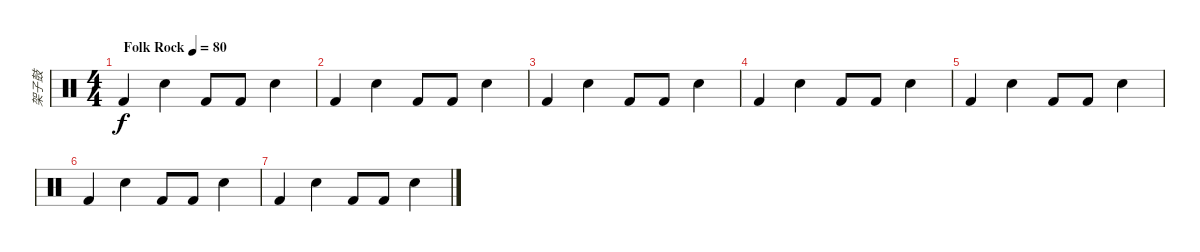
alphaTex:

\track ("架子鼓" "架子鼓") {instrument percussion}
\staff {score}
\articulation defaults
\ts (4 4)
\tempo (80 "Folk Rock")
\clef neutral
\ks c "Kick (hit) 2".4{dy f} "Electric Snare (hit)".4 "Kick (hit) 2".8 "Kick (hit) 2".8 "Electric Snare (hit)".4
|
"Kick (hit) 2".4 "Electric Snare (hit)".4 "Kick (hit) 2".8 "Kick (hit) 2".8 "Electric Snare (hit)".4 |
"Kick (hit) 2".4 "Electric Snare (hit)".4 "Kick (hit) 2".8 "Kick (hit) 2".8 "Electric Snare (hit)".4 |
"Kick (hit) 2".4 "Electric Snare (hit)".4 "Kick (hit) 2".8 "Kick (hit) 2".8 "Electric Snare (hit)".4 |
"Kick (hit) 2".4 "Electric Snare (hit)".4 "Kick (hit) 2".8 "Kick (hit) 2".8 "Electric Snare (hit)".4 |
"Kick (hit) 2".4 "Electric Snare (hit)".4 "Kick (hit) 2".8 "Kick (hit) 2".8 "Electric Snare (hit)".4 |
"Kick (hit) 2".4 "Electric Snare (hit)".4 "Kick (hit) 2".8 "Kick (hit) 2".8 "Electric Snare (hit)".4
